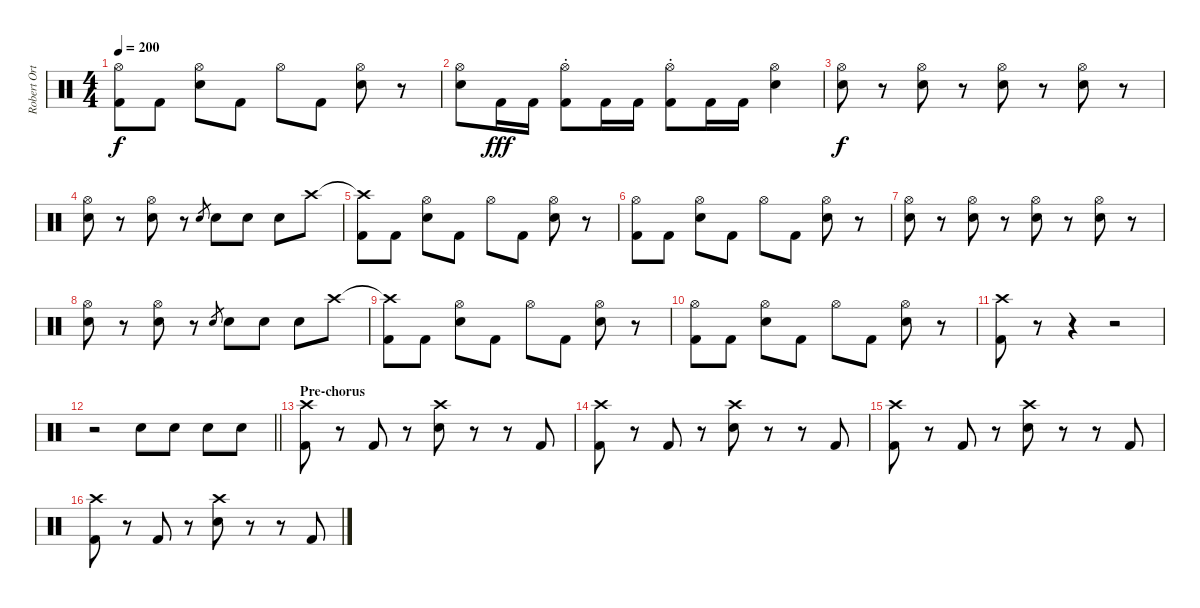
\track ("Robert Ortiz" "Robert Ort") {instrument percussion}
\staff {score}
\articulation defaults
\ts (4 4)
\tempo 200
\clef neutral
\ks c
("Hi-Hat (open)" "Kick (hit) 2").8{dy f} "Kick (hit) 2".8 ("Hi-Hat (open)" "Electric Snare (hit)").8 "Kick (hit) 2".8 "Hi-Hat (open)".8 "Kick (hit) 2".8 ("Hi-Hat (open)" "Electric Snare (hit)").8 r.8 |
("Hi-Hat (open)" "Electric Snare (hit)").8 "Kick (hit) 2".16{dy fff} "Kick (hit) 2".16 ("Hi-Hat (open)" "Kick (hit) 2"{st}).8 "Kick (hit) 2".16 "Kick (hit) 2".16 ("Hi-Hat (open)" "Kick (hit) 2"{st}).8 "Kick (hit) 2".16 "Kick (hit) 2".16 ("Hi-Hat (open)" "Electric Snare (hit)").4 |
("Hi-Hat (open)" "Electric Snare (hit)").8{dy f} r.8 ("Hi-Hat (open)" "Electric Snare (hit)").8 r.8 ("Hi-Hat (open)" "Electric Snare (hit)").8 r.8 ("Hi-Hat (open)" "Electric Snare (hit)").8 r.8 |
("Hi-Hat (open)" "Electric Snare (hit)").8 r.8 ("Hi-Hat (open)" "Electric Snare (hit)").8 r.8 "Electric Snare (hit)".8{gr} "Electric Snare (hit)".8 "Electric Snare (hit)".8 "Electric Snare (hit)".8 "Crash high (hit)".8 |
("Crash high (hit)"{t} "Kick (hit) 2").8 "Kick (hit) 2".8 ("Hi-Hat (open)" "Electric Snare (hit)").8 "Kick (hit) 2".8 "Hi-Hat (open)".8 "Kick (hit) 2".8 ("Hi-Hat (open)" "Electric Snare (hit)").8 r.8 |
("Hi-Hat (open)" "Kick (hit) 2").8 "Kick (hit) 2".8 ("Hi-Hat (open)" "Electric Snare (hit)").8 "Kick (hit) 2".8 "Hi-Hat (open)".8 "Kick (hit) 2".8 ("Hi-Hat (open)" "Electric Snare (hit)").8 r.8 |
("Hi-Hat (open)" "Electric Snare (hit)").8 r.8 ("Hi-Hat (open)" "Electric Snare (hit)").8 r.8 ("Hi-Hat (open)" "Electric Snare (hit)").8 r.8 ("Hi-Hat (open)" "Electric Snare (hit)").8 r.8 |
("Hi-Hat (open)" "Electric Snare (hit)").8 r.8 ("Hi-Hat (open)" "Electric Snare (hit)").8 r.8 "Electric Snare (hit)".8{gr} "Electric Snare (hit)".8 "Electric Snare (hit)".8 "Electric Snare (hit)".8 "Crash high (hit)".8 |
("Crash high (hit)"{t} "Kick (hit) 2").8 "Kick (hit) 2".8 ("Hi-Hat (open)" "Electric Snare (hit)").8 "Kick (hit) 2".8 "Hi-Hat (open)".8 "Kick (hit) 2".8 ("Hi-Hat (open)" "Electric Snare (hit)").8 r.8 |
("Hi-Hat (open)" "Kick (hit) 2").8 "Kick (hit) 2".8 ("Hi-Hat (open)" "Electric Snare (hit)").8 "Kick (hit) 2".8 "Hi-Hat (open)".8 "Kick (hit) 2".8 ("Hi-Hat (open)" "Electric Snare (hit)").8 r.8 |
("Crash high (hit)" "Kick (hit) 2").8 r.8 r.4 r.2 |
\barLineRight lightlight
r.2 "Electric Snare (hit)".8 "Electric Snare (hit)".8 "Electric Snare (hit)".8 "Electric Snare (hit)".8 |
\section ("" "Pre-chorus")
("Crash high (hit)" "Kick (hit) 2").8 r.8 "Kick (hit) 2".8 r.8 ("Crash high (hit)" "Electric Snare (hit)").8 r.8 r.8 "Kick (hit) 2".8 |
("Crash high (hit)" "Kick (hit) 2").8 r.8 "Kick (hit) 2".8 r.8 ("Crash high (hit)" "Electric Snare (hit)").8 r.8 r.8 "Kick (hit) 2".8 |
("Crash high (hit)" "Kick (hit) 2").8 r.8 "Kick (hit) 2".8 r.8 ("Crash high (hit)" "Electric Snare (hit)").8 r.8 r.8 "Kick (hit) 2".8 |
("Crash high (hit)" "Kick (hit) 2").8 r.8 "Kick (hit) 2".8 r.8 ("Crash high (hit)" "Electric Snare (hit)").8 r.8 r.8 "Kick (hit) 2".8
